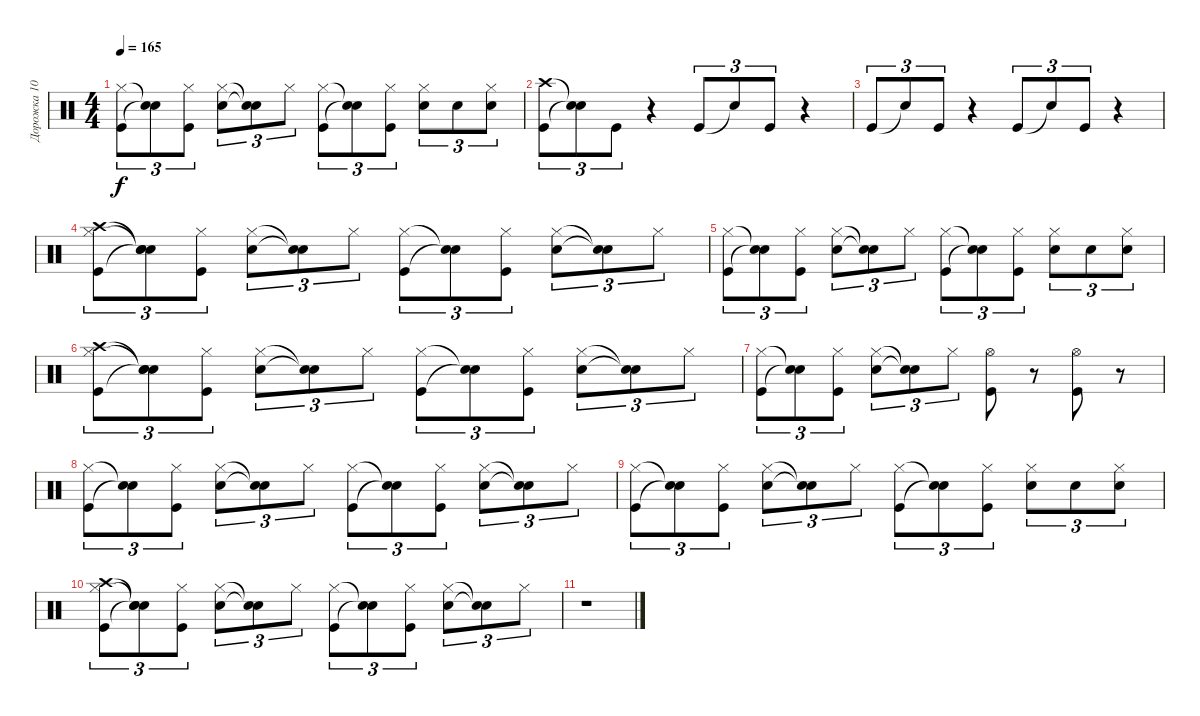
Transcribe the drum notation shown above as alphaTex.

\track ("Дорожка 10" "Дорожка 10") {instrument percussion}
\staff {score}
\articulation defaults
\ts (4 4)
\tempo 165
\clef neutral
\ks c
("Kick (hit)" "Hi-Hat (closed)").8{tu (3 2) dy f} ("Snare (hit)"{t} "Snare (hit)"{t}).8{tu (3 2)} ("Hi-Hat (closed)" "Kick (hit)").8{tu (3 2)} ("Hi-Hat (closed)" "Electric Snare (hit)").8{tu (3 2)} ("Snare (hit)"{t} "Snare (hit)"{t}).8{tu (3 2)} "Hi-Hat (closed)".8{tu (3 2)} ("Kick (hit)" "Hi-Hat (closed)").8{tu (3 2)} ("Snare (hit)"{t} "Snare (hit)"{t}).8{tu (3 2)} ("Kick (hit)" "Hi-Hat (closed)").8{tu (3 2)} ("Hi-Hat (closed)" "Electric Snare (hit)").8{tu (3 2)} "Electric Snare (hit)".8{tu (3 2)} ("Hi-Hat (closed)" "Electric Snare (hit)").8{tu (3 2)} |
("Crash high (hit)" "Kick (hit)").8{tu (3 2)} ("Snare (hit)"{t} "Snare (hit)"{t}).8{tu (3 2)} "Kick (hit)".8{tu (3 2)} r.4 "Kick (hit)".8{tu (3 2)} "Snare (hit)"{t}.8{tu (3 2)} "Kick (hit)".8{tu (3 2)} r.4 |
"Kick (hit)".8{tu (3 2)} "Snare (hit)"{t}.8{tu (3 2)} "Kick (hit)".8{tu (3 2)} r.4 "Kick (hit)".8{tu (3 2)} "Snare (hit)"{t}.8{tu (3 2)} "Kick (hit)".8{tu (3 2)} r.4 |
("Crash high (hit)" "Hi-Hat (closed)" "Kick (hit)").8{tu (3 2)} ("Snare (hit)"{t} "Snare (hit)"{t} "Snare (hit)"{t}).8{tu (3 2)} ("Hi-Hat (closed)" "Kick (hit)").8{tu (3 2)} ("Hi-Hat (closed)" "Electric Snare (hit)").8{tu (3 2)} ("Snare (hit)"{t} "Snare (hit)"{t}).8{tu (3 2)} "Hi-Hat (closed)".8{tu (3 2)} ("Hi-Hat (closed)" "Kick (hit)").8{tu (3 2)} ("Snare (hit)"{t} "Snare (hit)"{t}).8{tu (3 2)} ("Hi-Hat (closed)" "Kick (hit)").8{tu (3 2)} ("Hi-Hat (closed)" "Electric Snare (hit)").8{tu (3 2)} ("Snare (hit)"{t} "Snare (hit)"{t}).8{tu (3 2)} "Hi-Hat (closed)".8{tu (3 2)} |
("Hi-Hat (closed)" "Kick (hit)").8{tu (3 2)} ("Snare (hit)"{t} "Snare (hit)"{t}).8{tu (3 2)} ("Hi-Hat (closed)" "Kick (hit)").8{tu (3 2)} ("Hi-Hat (closed)" "Electric Snare (hit)").8{tu (3 2)} ("Snare (hit)"{t} "Snare (hit)"{t}).8{tu (3 2)} "Hi-Hat (closed)".8{tu (3 2)} ("Hi-Hat (closed)" "Kick (hit)").8{tu (3 2)} ("Snare (hit)"{t} "Snare (hit)"{t}).8{tu (3 2)} ("Kick (hit)" "Hi-Hat (closed)").8{tu (3 2)} ("Hi-Hat (closed)" "Electric Snare (hit)").8{tu (3 2)} "Electric Snare (hit)".8{tu (3 2)} ("Electric Snare (hit)" "Hi-Hat (closed)").8{tu (3 2)} |
("Crash high (hit)" "Hi-Hat (closed)" "Kick (hit)").8{tu (3 2)} ("Snare (hit)"{t} "Snare (hit)"{t} "Snare (hit)"{t}).8{tu (3 2)} ("Hi-Hat (closed)" "Kick (hit)").8{tu (3 2)} ("Electric Snare (hit)" "Hi-Hat (closed)").8{tu (3 2)} ("Snare (hit)"{t} "Snare (hit)"{t}).8{tu (3 2)} "Hi-Hat (closed)".8{tu (3 2)} ("Hi-Hat (closed)" "Kick (hit)").8{tu (3 2)} ("Snare (hit)"{t} "Snare (hit)"{t}).8{tu (3 2)} ("Hi-Hat (closed)" "Kick (hit)").8{tu (3 2)} ("Hi-Hat (closed)" "Electric Snare (hit)").8{tu (3 2)} ("Snare (hit)"{t} "Snare (hit)"{t}).8{tu (3 2)} "Hi-Hat (closed)".8{tu (3 2)} |
("Kick (hit)" "Hi-Hat (closed)").8{tu (3 2)} ("Snare (hit)"{t} "Snare (hit)"{t}).8{tu (3 2)} ("Kick (hit)" "Hi-Hat (closed)").8{tu (3 2)} ("Hi-Hat (closed)" "Electric Snare (hit)").8{tu (3 2)} ("Snare (hit)"{t} "Snare (hit)"{t}).8{tu (3 2)} "Hi-Hat (closed)".8{tu (3 2)} ("Kick (hit)" "Hi-Hat (open)").8 r.8 ("Kick (hit)" "Hi-Hat (open)").8 r.8 |
("Hi-Hat (closed)" "Kick (hit)").8{tu (3 2)} ("Snare (hit)"{t} "Snare (hit)"{t}).8{tu (3 2)} ("Hi-Hat (closed)" "Kick (hit)").8{tu (3 2)} ("Hi-Hat (closed)" "Electric Snare (hit)").8{tu (3 2)} ("Snare (hit)"{t} "Snare (hit)"{t}).8{tu (3 2)} "Hi-Hat (closed)".8{tu (3 2)} ("Kick (hit)" "Hi-Hat (closed)").8{tu (3 2)} ("Snare (hit)"{t} "Snare (hit)"{t}).8{tu (3 2)} ("Kick (hit)" "Hi-Hat (closed)").8{tu (3 2)} ("Hi-Hat (closed)" "Electric Snare (hit)").8{tu (3 2)} ("Snare (hit)"{t} "Snare (hit)"{t}).8{tu (3 2)} "Hi-Hat (closed)".8{tu (3 2)} |
("Kick (hit)" "Hi-Hat (closed)").8{tu (3 2)} ("Snare (hit)"{t} "Snare (hit)"{t}).8{tu (3 2)} ("Hi-Hat (closed)" "Kick (hit)").8{tu (3 2)} ("Electric Snare (hit)" "Hi-Hat (closed)").8{tu (3 2)} ("Snare (hit)"{t} "Snare (hit)"{t}).8{tu (3 2)} "Hi-Hat (closed)".8{tu (3 2)} ("Kick (hit)" "Hi-Hat (closed)").8{tu (3 2)} ("Snare (hit)"{t} "Snare (hit)"{t}).8{tu (3 2)} ("Hi-Hat (closed)" "Kick (hit)").8{tu (3 2)} ("Electric Snare (hit)" "Hi-Hat (closed)").8{tu (3 2)} "Electric Snare (hit)".8{tu (3 2)} ("Hi-Hat (closed)" "Electric Snare (hit)").8{tu (3 2)} |
("Crash high (hit)" "Kick (hit)" "Hi-Hat (closed)").8{tu (3 2)} ("Snare (hit)"{t} "Snare (hit)"{t} "Snare (hit)"{t}).8{tu (3 2)} ("Kick (hit)" "Hi-Hat (closed)").8{tu (3 2)} ("Electric Snare (hit)" "Hi-Hat (closed)").8{tu (3 2)} ("Snare (hit)"{t} "Snare (hit)"{t}).8{tu (3 2)} "Hi-Hat (closed)".8{tu (3 2)} ("Kick (hit)" "Hi-Hat (closed)").8{tu (3 2)} ("Snare (hit)"{t} "Snare (hit)"{t}).8{tu (3 2)} ("Hi-Hat (closed)" "Kick (hit)").8{tu (3 2)} ("Electric Snare (hit)" "Hi-Hat (closed)").8{tu (3 2)} ("Snare (hit)"{t} "Snare (hit)"{t}).8{tu (3 2)} "Hi-Hat (closed)".8{tu (3 2)} |
r.1
